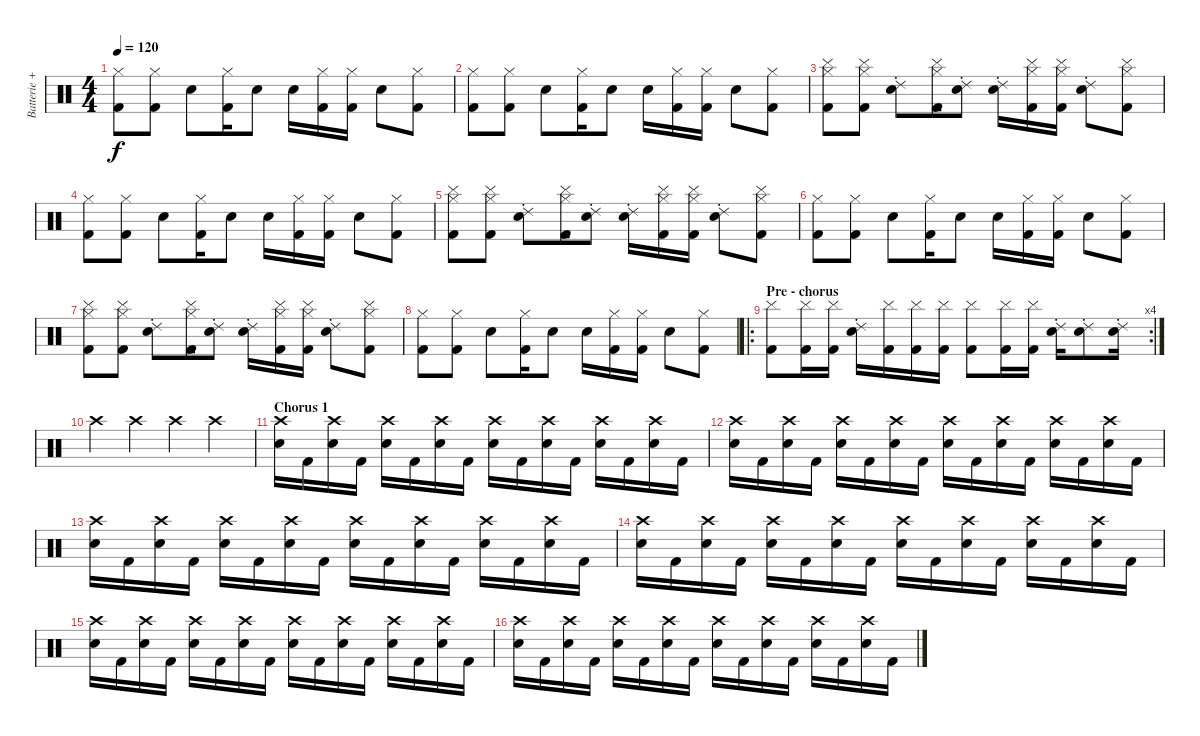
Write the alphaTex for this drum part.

\track ("Batterie + Platines" "Batterie +") {instrument percussion}
\staff {score}
\articulation defaults
\ts (4 4)
\tempo 120
\clef neutral
\ks c
("Hi-Hat (closed)" "Kick (hit) 2").8{dy f} ("Hi-Hat (closed)" "Kick (hit) 2").8 "Snare (hit) 2".8 ("Hi-Hat (closed)" "Kick (hit) 2").16 "Snare (hit) 2".8 "Snare (hit) 2".16 ("Hi-Hat (closed)" "Kick (hit) 2").16 ("Hi-Hat (closed)" "Kick (hit) 2").16 "Snare (hit) 2".8 ("Hi-Hat (closed)" "Kick (hit) 2").8 |
("Hi-Hat (closed)" "Kick (hit) 2").8 ("Hi-Hat (closed)" "Kick (hit) 2").8 "Snare (hit) 2".8 ("Hi-Hat (closed)" "Kick (hit) 2").16 "Snare (hit) 2".8 "Snare (hit) 2".16 ("Hi-Hat (closed)" "Kick (hit) 2").16 ("Hi-Hat (closed)" "Kick (hit) 2").16 "Snare (hit) 2".8 ("Hi-Hat (closed)" "Kick (hit) 2").8 |
("Cymbal (hit)" "Hi-Hat (closed)" "Kick (hit) 2").8 ("Cymbal (hit)" "Hi-Hat (closed)" "Kick (hit) 2").8 ("Ride (choke) 2" "Snare (hit) 2").8 ("Cymbal (hit)" "Hi-Hat (closed)" "Kick (hit) 2").16 ("Ride (choke) 2" "Snare (hit) 2").8 ("Ride (choke) 2" "Snare (hit) 2").16 ("Cymbal (hit)" "Hi-Hat (closed)" "Kick (hit) 2").16 ("Cymbal (hit)" "Hi-Hat (closed)" "Kick (hit) 2").16 ("Ride (choke) 2" "Snare (hit) 2").8 ("Cymbal (hit)" "Hi-Hat (closed)" "Kick (hit) 2").8 |
("Hi-Hat (closed)" "Kick (hit) 2").8 ("Hi-Hat (closed)" "Kick (hit) 2").8 "Snare (hit) 2".8 ("Hi-Hat (closed)" "Kick (hit) 2").16 "Snare (hit) 2".8 "Snare (hit) 2".16 ("Hi-Hat (closed)" "Kick (hit) 2").16 ("Hi-Hat (closed)" "Kick (hit) 2").16 "Snare (hit) 2".8 ("Hi-Hat (closed)" "Kick (hit) 2").8 |
("Cymbal (hit)" "Hi-Hat (closed)" "Kick (hit) 2").8 ("Cymbal (hit)" "Hi-Hat (closed)" "Kick (hit) 2").8 ("Ride (choke) 2" "Snare (hit) 2").8 ("Cymbal (hit)" "Hi-Hat (closed)" "Kick (hit) 2").16 ("Ride (choke) 2" "Snare (hit) 2").8 ("Ride (choke) 2" "Snare (hit) 2").16 ("Cymbal (hit)" "Hi-Hat (closed)" "Kick (hit) 2").16 ("Cymbal (hit)" "Hi-Hat (closed)" "Kick (hit) 2").16 ("Ride (choke) 2" "Snare (hit) 2").8 ("Cymbal (hit)" "Hi-Hat (closed)" "Kick (hit) 2").8 |
("Hi-Hat (closed)" "Kick (hit) 2").8 ("Hi-Hat (closed)" "Kick (hit) 2").8 "Snare (hit) 2".8 ("Hi-Hat (closed)" "Kick (hit) 2").16 "Snare (hit) 2".8 "Snare (hit) 2".16 ("Hi-Hat (closed)" "Kick (hit) 2").16 ("Hi-Hat (closed)" "Kick (hit) 2").16 "Snare (hit) 2".8 ("Hi-Hat (closed)" "Kick (hit) 2").8 |
("Cymbal (hit)" "Hi-Hat (closed)" "Kick (hit) 2").8 ("Cymbal (hit)" "Hi-Hat (closed)" "Kick (hit) 2").8 ("Ride (choke) 2" "Snare (hit) 2").8 ("Cymbal (hit)" "Hi-Hat (closed)" "Kick (hit) 2").16 ("Ride (choke) 2" "Snare (hit) 2").8 ("Ride (choke) 2" "Snare (hit) 2").16 ("Cymbal (hit)" "Hi-Hat (closed)" "Kick (hit) 2").16 ("Cymbal (hit)" "Hi-Hat (closed)" "Kick (hit) 2").16 ("Ride (choke) 2" "Snare (hit) 2").8 ("Cymbal (hit)" "Hi-Hat (closed)" "Kick (hit) 2").8 |
("Hi-Hat (closed)" "Kick (hit) 2").8 ("Hi-Hat (closed)" "Kick (hit) 2").8 "Snare (hit) 2".8 ("Hi-Hat (closed)" "Kick (hit) 2").16 "Snare (hit) 2".8 "Snare (hit) 2".16 ("Hi-Hat (closed)" "Kick (hit) 2").16 ("Hi-Hat (closed)" "Kick (hit) 2").16 "Snare (hit) 2".8 ("Hi-Hat (closed)" "Kick (hit) 2").8 |
\ro
\rc 4
\section ("" "Pre - chorus")
("Cymbal (hit)" "Kick (hit) 2").8 ("Cymbal (hit)" "Kick (hit) 2").16 ("Cymbal (hit)" "Kick (hit) 2").16 ("Ride (choke) 2" "Snare (hit) 2").16 ("Cymbal (hit)" "Kick (hit) 2").16 ("Cymbal (hit)" "Kick (hit) 2").16 ("Cymbal (hit)" "Kick (hit) 2").16 ("Cymbal (hit)" "Kick (hit) 2").8 ("Cymbal (hit)" "Kick (hit) 2").16 ("Cymbal (hit)" "Kick (hit) 2").16 ("Ride (choke) 2" "Snare (hit) 2").16 ("Ride (choke) 2" "Snare (hit) 2").8 ("Ride (choke) 2" "Snare (hit) 2").16 |
"Crash high (hit)".4 "Crash high (hit)".4 "Crash high (hit)".4 "Crash high (hit)".4 |
\section ("" "Chorus 1")
("Crash high (hit)" "Snare (hit) 2").16 "Kick (hit) 2".16 ("Crash high (hit)" "Snare (hit) 2").16 "Kick (hit) 2".16 ("Crash high (hit)" "Snare (hit) 2").16 "Kick (hit) 2".16 ("Crash high (hit)" "Snare (hit) 2").16 "Kick (hit) 2".16 ("Crash high (hit)" "Snare (hit) 2").16 "Kick (hit) 2".16 ("Crash high (hit)" "Snare (hit) 2").16 "Kick (hit) 2".16 ("Crash high (hit)" "Snare (hit) 2").16 "Kick (hit) 2".16 ("Crash high (hit)" "Snare (hit) 2").16 "Kick (hit) 2".16 |
("Crash high (hit)" "Snare (hit) 2").16 "Kick (hit) 2".16 ("Crash high (hit)" "Snare (hit) 2").16 "Kick (hit) 2".16 ("Crash high (hit)" "Snare (hit) 2").16 "Kick (hit) 2".16 ("Crash high (hit)" "Snare (hit) 2").16 "Kick (hit) 2".16 ("Crash high (hit)" "Snare (hit) 2").16 "Kick (hit) 2".16 ("Crash high (hit)" "Snare (hit) 2").16 "Kick (hit) 2".16 ("Crash high (hit)" "Snare (hit) 2").16 "Kick (hit) 2".16 ("Crash high (hit)" "Snare (hit) 2").16 "Kick (hit) 2".16 |
("Crash high (hit)" "Snare (hit) 2").16 "Kick (hit) 2".16 ("Crash high (hit)" "Snare (hit) 2").16 "Kick (hit) 2".16 ("Crash high (hit)" "Snare (hit) 2").16 "Kick (hit) 2".16 ("Crash high (hit)" "Snare (hit) 2").16 "Kick (hit) 2".16 ("Crash high (hit)" "Snare (hit) 2").16 "Kick (hit) 2".16 ("Crash high (hit)" "Snare (hit) 2").16 "Kick (hit) 2".16 ("Crash high (hit)" "Snare (hit) 2").16 "Kick (hit) 2".16 ("Crash high (hit)" "Snare (hit) 2").16 "Kick (hit) 2".16 |
("Crash high (hit)" "Snare (hit) 2").16 "Kick (hit) 2".16 ("Crash high (hit)" "Snare (hit) 2").16 "Kick (hit) 2".16 ("Crash high (hit)" "Snare (hit) 2").16 "Kick (hit) 2".16 ("Crash high (hit)" "Snare (hit) 2").16 "Kick (hit) 2".16 ("Crash high (hit)" "Snare (hit) 2").16 "Kick (hit) 2".16 ("Crash high (hit)" "Snare (hit) 2").16 "Kick (hit) 2".16 ("Crash high (hit)" "Snare (hit) 2").16 "Kick (hit) 2".16 ("Crash high (hit)" "Snare (hit) 2").16 "Kick (hit) 2".16 |
("Crash high (hit)" "Snare (hit) 2").16 "Kick (hit) 2".16 ("Crash high (hit)" "Snare (hit) 2").16 "Kick (hit) 2".16 ("Crash high (hit)" "Snare (hit) 2").16 "Kick (hit) 2".16 ("Crash high (hit)" "Snare (hit) 2").16 "Kick (hit) 2".16 ("Crash high (hit)" "Snare (hit) 2").16 "Kick (hit) 2".16 ("Crash high (hit)" "Snare (hit) 2").16 "Kick (hit) 2".16 ("Crash high (hit)" "Snare (hit) 2").16 "Kick (hit) 2".16 ("Crash high (hit)" "Snare (hit) 2").16 "Kick (hit) 2".16 |
("Crash high (hit)" "Snare (hit) 2").16 "Kick (hit) 2".16 ("Crash high (hit)" "Snare (hit) 2").16 "Kick (hit) 2".16 ("Crash high (hit)" "Snare (hit) 2").16 "Kick (hit) 2".16 ("Crash high (hit)" "Snare (hit) 2").16 "Kick (hit) 2".16 ("Crash high (hit)" "Snare (hit) 2").16 "Kick (hit) 2".16 ("Crash high (hit)" "Snare (hit) 2").16 "Kick (hit) 2".16 ("Crash high (hit)" "Snare (hit) 2").16 "Kick (hit) 2".16 ("Crash high (hit)" "Snare (hit) 2").16 "Kick (hit) 2".16
